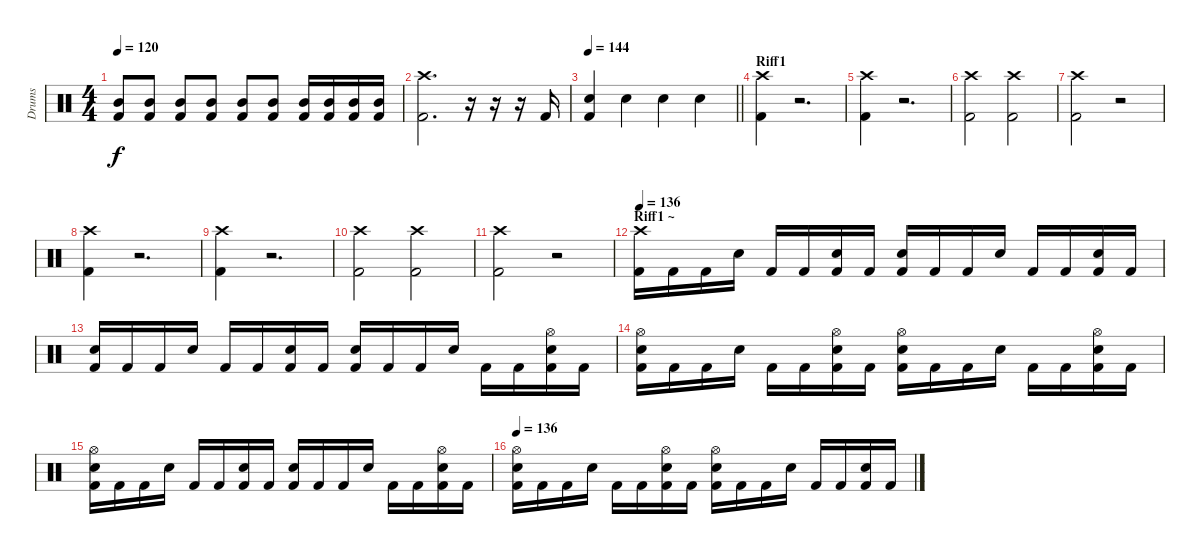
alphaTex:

\track ("Drums" "Drums") {instrument percussion}
\staff {score}
\articulation defaults
\ts (4 4)
\tempo 120
\clef neutral
\ks c
("Mid Tom (hit)" "Kick (hit) 2").8{dy f volume 10} ("Mid Tom (hit)" "Kick (hit) 2").8{volume 11} ("Mid Tom (hit)" "Kick (hit) 2").8{volume 11} ("Mid Tom (hit)" "Kick (hit) 2").8{volume 12} ("Mid Tom (hit)" "Kick (hit) 2").8{volume 12} ("Mid Tom (hit)" "Kick (hit) 2").8{volume 13} ("Mid Tom (hit)" "Kick (hit) 2").16 ("Mid Tom (hit)" "Kick (hit) 2").16 ("Mid Tom (hit)" "Kick (hit) 2").16 ("Mid Tom (hit)" "Kick (hit) 2").16 |
("Crash high (hit)" "Kick (hit) 2").2{d} r.16 r.16 r.16 "Kick (hit) 2".16 |
\tempo 144
\barLineRight lightlight
("Snare (hit) 2" "Kick (hit) 2").4 "Snare (hit) 2".4 "Snare (hit) 2".4 "Snare (hit) 2".4 |
\section ("" "Riff1")
("Kick (hit) 2" "Crash high (hit)").4 r.2{d} |
("Kick (hit) 2" "Crash high (hit)").4 r.2{d} |
("Kick (hit) 2" "Crash high (hit)").2 ("Kick (hit) 2" "Crash high (hit)").2 |
("Kick (hit) 2" "Crash high (hit)").2 r.2 |
("Kick (hit) 2" "Crash high (hit)").4 r.2{d} |
("Kick (hit) 2" "Crash high (hit)").4 r.2{d} |
("Kick (hit) 2" "Crash high (hit)").2 ("Kick (hit) 2" "Crash high (hit)").2 |
("Kick (hit) 2" "Crash high (hit)").2 r.2 |
\section ("" "Riff1 ~")
\tempo 136
("Crash high (hit)" "Kick (hit) 2").16 "Kick (hit) 2".16 "Kick (hit) 2".16 "Snare (hit) 2".16 "Kick (hit) 2".16 "Kick (hit) 2".16 ("Snare (hit) 2" "Kick (hit) 2").16 "Kick (hit) 2".16 ("Snare (hit) 2" "Kick (hit) 2").16 "Kick (hit) 2".16 "Kick (hit) 2".16 "Snare (hit) 2".16 "Kick (hit) 2".16 "Kick (hit) 2".16 ("Snare (hit) 2" "Kick (hit) 2").16 "Kick (hit) 2".16 |
("Snare (hit) 2" "Kick (hit) 2").16 "Kick (hit) 2".16 "Kick (hit) 2".16 "Snare (hit) 2".16 "Kick (hit) 2".16 "Kick (hit) 2".16 ("Snare (hit) 2" "Kick (hit) 2").16 "Kick (hit) 2".16 ("Snare (hit) 2" "Kick (hit) 2").16 "Kick (hit) 2".16 "Kick (hit) 2".16 "Snare (hit) 2".16 "Kick (hit) 2".16 "Kick (hit) 2".16 ("Snare (hit) 2" "Hi-Hat (open)" "Kick (hit) 2").16 "Kick (hit) 2".16 |
("Snare (hit) 2" "Hi-Hat (open)" "Kick (hit) 2").16 "Kick (hit) 2".16 "Kick (hit) 2".16 "Snare (hit) 2".16 "Kick (hit) 2".16 "Kick (hit) 2".16 ("Snare (hit) 2" "Hi-Hat (open)" "Kick (hit) 2").16 "Kick (hit) 2".16 ("Snare (hit) 2" "Hi-Hat (open)" "Kick (hit) 2").16 "Kick (hit) 2".16 "Kick (hit) 2".16 "Snare (hit) 2".16 "Kick (hit) 2".16 "Kick (hit) 2".16 ("Snare (hit) 2" "Hi-Hat (open)" "Kick (hit) 2").16 "Kick (hit) 2".16 |
("Snare (hit) 2" "Hi-Hat (open)" "Kick (hit) 2").16 "Kick (hit) 2".16 "Kick (hit) 2".16 "Snare (hit) 2".16 "Kick (hit) 2".16 "Kick (hit) 2".16 ("Snare (hit) 2" "Kick (hit) 2").16 "Kick (hit) 2".16 ("Snare (hit) 2" "Kick (hit) 2").16 "Kick (hit) 2".16 "Kick (hit) 2".16 "Snare (hit) 2".16 "Kick (hit) 2".16 "Kick (hit) 2".16 ("Snare (hit) 2" "Hi-Hat (open)" "Kick (hit) 2").16 "Kick (hit) 2".16 |
\tempo 136
("Snare (hit) 2" "Hi-Hat (open)" "Kick (hit) 2").16 "Kick (hit) 2".16 "Kick (hit) 2".16 "Snare (hit) 2".16 "Kick (hit) 2".16 "Kick (hit) 2".16 ("Snare (hit) 2" "Hi-Hat (open)" "Kick (hit) 2").16 "Kick (hit) 2".16 ("Snare (hit) 2" "Hi-Hat (open)" "Kick (hit) 2").16 "Kick (hit) 2".16 "Kick (hit) 2".16 "Snare (hit) 2".16 "Kick (hit) 2".16 "Kick (hit) 2".16 ("Snare (hit) 2" "Kick (hit) 2").16 "Kick (hit) 2".16
